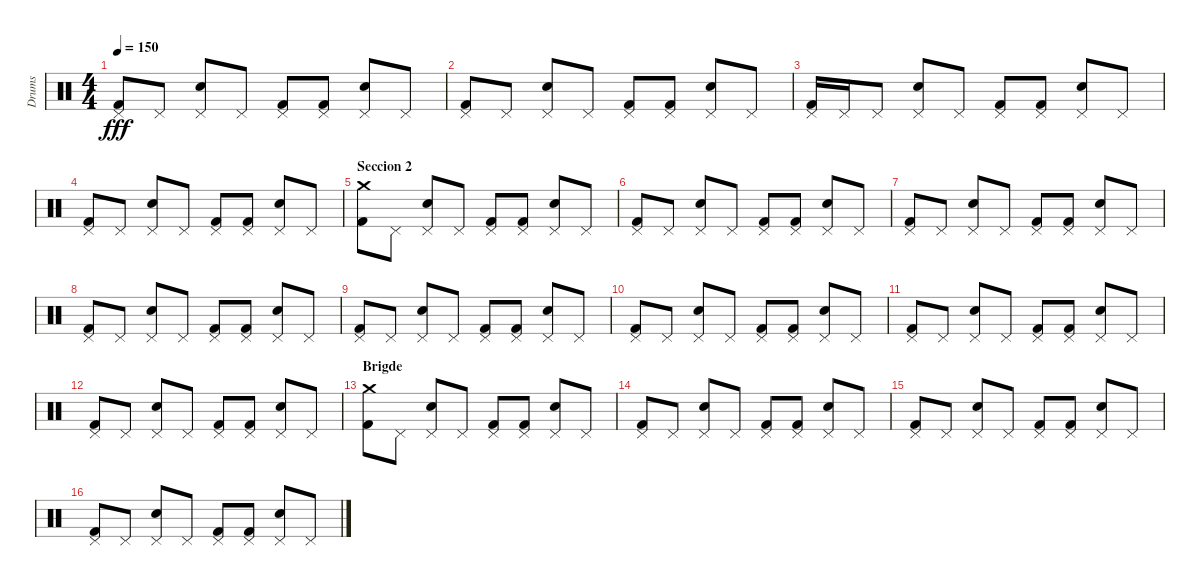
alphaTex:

\track ("Drums" "Drums") {instrument percussion}
\staff {score}
\articulation defaults
\ts (4 4)
\tempo 150
\clef neutral
\ks c
("Pedal Hi-Hat (hit)" "Kick (hit) 2").8{dy fff} "Pedal Hi-Hat (hit)".8 ("Pedal Hi-Hat (hit)" "Snare (hit) 2").8 "Pedal Hi-Hat (hit)".8 ("Pedal Hi-Hat (hit)" "Kick (hit) 2").8 ("Pedal Hi-Hat (hit)" "Kick (hit) 2").8 ("Pedal Hi-Hat (hit)" "Snare (hit) 2").8 "Pedal Hi-Hat (hit)".8 |
("Pedal Hi-Hat (hit)" "Kick (hit) 2").8 "Pedal Hi-Hat (hit)".8 ("Pedal Hi-Hat (hit)" "Snare (hit) 2").8 "Pedal Hi-Hat (hit)".8 ("Pedal Hi-Hat (hit)" "Kick (hit) 2").8 ("Pedal Hi-Hat (hit)" "Kick (hit) 2").8 ("Pedal Hi-Hat (hit)" "Snare (hit) 2").8 "Pedal Hi-Hat (hit)".8 |
("Pedal Hi-Hat (hit)" "Kick (hit) 2").16 "Pedal Hi-Hat (hit)".16 "Pedal Hi-Hat (hit)".8 ("Pedal Hi-Hat (hit)" "Snare (hit) 2").8 "Pedal Hi-Hat (hit)".8 ("Pedal Hi-Hat (hit)" "Kick (hit) 2").8 ("Pedal Hi-Hat (hit)" "Kick (hit) 2").8 ("Pedal Hi-Hat (hit)" "Snare (hit) 2").8 "Pedal Hi-Hat (hit)".8 |
("Pedal Hi-Hat (hit)" "Kick (hit) 2").8 "Pedal Hi-Hat (hit)".8 ("Pedal Hi-Hat (hit)" "Snare (hit) 2").8 "Pedal Hi-Hat (hit)".8 ("Pedal Hi-Hat (hit)" "Kick (hit) 2").8 ("Pedal Hi-Hat (hit)" "Kick (hit) 2").8 ("Pedal Hi-Hat (hit)" "Snare (hit) 2").8 "Pedal Hi-Hat (hit)".8 |
\section ("" "Seccion 2")
("Crash medium (hit)" "Kick (hit) 2").8 "Pedal Hi-Hat (hit)".8 ("Pedal Hi-Hat (hit)" "Snare (hit) 2").8 "Pedal Hi-Hat (hit)".8 ("Pedal Hi-Hat (hit)" "Kick (hit) 2").8 ("Pedal Hi-Hat (hit)" "Kick (hit) 2").8 ("Pedal Hi-Hat (hit)" "Snare (hit) 2").8 "Pedal Hi-Hat (hit)".8 |
("Pedal Hi-Hat (hit)" "Kick (hit) 2").8 "Pedal Hi-Hat (hit)".8 ("Pedal Hi-Hat (hit)" "Snare (hit) 2").8 "Pedal Hi-Hat (hit)".8 ("Pedal Hi-Hat (hit)" "Kick (hit) 2").8 ("Pedal Hi-Hat (hit)" "Kick (hit) 2").8 ("Pedal Hi-Hat (hit)" "Snare (hit) 2").8 "Pedal Hi-Hat (hit)".8 |
("Pedal Hi-Hat (hit)" "Kick (hit) 2").8 "Pedal Hi-Hat (hit)".8 ("Pedal Hi-Hat (hit)" "Snare (hit) 2").8 "Pedal Hi-Hat (hit)".8 ("Pedal Hi-Hat (hit)" "Kick (hit) 2").8 ("Pedal Hi-Hat (hit)" "Kick (hit) 2").8 ("Pedal Hi-Hat (hit)" "Snare (hit) 2").8 "Pedal Hi-Hat (hit)".8 |
("Pedal Hi-Hat (hit)" "Kick (hit) 2").8 "Pedal Hi-Hat (hit)".8 ("Pedal Hi-Hat (hit)" "Snare (hit) 2").8 "Pedal Hi-Hat (hit)".8 ("Pedal Hi-Hat (hit)" "Kick (hit) 2").8 ("Pedal Hi-Hat (hit)" "Kick (hit) 2").8 ("Pedal Hi-Hat (hit)" "Snare (hit) 2").8 "Pedal Hi-Hat (hit)".8 |
("Pedal Hi-Hat (hit)" "Kick (hit) 2").8 "Pedal Hi-Hat (hit)".8 ("Pedal Hi-Hat (hit)" "Snare (hit) 2").8 "Pedal Hi-Hat (hit)".8 ("Pedal Hi-Hat (hit)" "Kick (hit) 2").8 ("Pedal Hi-Hat (hit)" "Kick (hit) 2").8 ("Pedal Hi-Hat (hit)" "Snare (hit) 2").8 "Pedal Hi-Hat (hit)".8 |
("Pedal Hi-Hat (hit)" "Kick (hit) 2").8 "Pedal Hi-Hat (hit)".8 ("Pedal Hi-Hat (hit)" "Snare (hit) 2").8 "Pedal Hi-Hat (hit)".8 ("Pedal Hi-Hat (hit)" "Kick (hit) 2").8 ("Pedal Hi-Hat (hit)" "Kick (hit) 2").8 ("Pedal Hi-Hat (hit)" "Snare (hit) 2").8 "Pedal Hi-Hat (hit)".8 |
("Pedal Hi-Hat (hit)" "Kick (hit) 2").8 "Pedal Hi-Hat (hit)".8 ("Pedal Hi-Hat (hit)" "Snare (hit) 2").8 "Pedal Hi-Hat (hit)".8 ("Pedal Hi-Hat (hit)" "Kick (hit) 2").8 ("Pedal Hi-Hat (hit)" "Kick (hit) 2").8 ("Pedal Hi-Hat (hit)" "Snare (hit) 2").8 "Pedal Hi-Hat (hit)".8 |
("Pedal Hi-Hat (hit)" "Kick (hit) 2").8 "Pedal Hi-Hat (hit)".8 ("Pedal Hi-Hat (hit)" "Snare (hit) 2").8 "Pedal Hi-Hat (hit)".8 ("Pedal Hi-Hat (hit)" "Kick (hit) 2").8 ("Pedal Hi-Hat (hit)" "Kick (hit) 2").8 ("Pedal Hi-Hat (hit)" "Snare (hit) 2").8 "Pedal Hi-Hat (hit)".8 |
\section ("" "Brigde")
("Crash medium (hit)" "Kick (hit) 2").8 "Pedal Hi-Hat (hit)".8 ("Pedal Hi-Hat (hit)" "Snare (hit) 2").8 "Pedal Hi-Hat (hit)".8 ("Pedal Hi-Hat (hit)" "Kick (hit) 2").8 ("Pedal Hi-Hat (hit)" "Kick (hit) 2").8 ("Pedal Hi-Hat (hit)" "Snare (hit) 2").8 "Pedal Hi-Hat (hit)".8 |
("Pedal Hi-Hat (hit)" "Kick (hit) 2").8 "Pedal Hi-Hat (hit)".8 ("Pedal Hi-Hat (hit)" "Snare (hit) 2").8 "Pedal Hi-Hat (hit)".8 ("Pedal Hi-Hat (hit)" "Kick (hit) 2").8 ("Pedal Hi-Hat (hit)" "Kick (hit) 2").8 ("Pedal Hi-Hat (hit)" "Snare (hit) 2").8 "Pedal Hi-Hat (hit)".8 |
("Pedal Hi-Hat (hit)" "Kick (hit) 2").8 "Pedal Hi-Hat (hit)".8 ("Pedal Hi-Hat (hit)" "Snare (hit) 2").8 "Pedal Hi-Hat (hit)".8 ("Pedal Hi-Hat (hit)" "Kick (hit) 2").8 ("Pedal Hi-Hat (hit)" "Kick (hit) 2").8 ("Pedal Hi-Hat (hit)" "Snare (hit) 2").8 "Pedal Hi-Hat (hit)".8 |
("Pedal Hi-Hat (hit)" "Kick (hit) 2").8 "Pedal Hi-Hat (hit)".8 ("Pedal Hi-Hat (hit)" "Snare (hit) 2").8 "Pedal Hi-Hat (hit)".8 ("Pedal Hi-Hat (hit)" "Kick (hit) 2").8 ("Pedal Hi-Hat (hit)" "Kick (hit) 2").8 ("Pedal Hi-Hat (hit)" "Snare (hit) 2").8 "Pedal Hi-Hat (hit)".8
